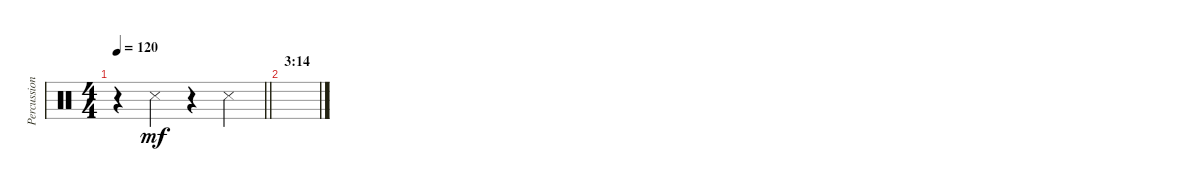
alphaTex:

\track ("Percussion" "Percussion") {instrument percussion}
\staff {score}
\articulation defaults
\ts (4 4)
\tempo 120
\clef neutral
\barLineRight lightlight
\ks c
r.4{dy mf} "Snare (side stick) 3".4 r.4 "Snare (side stick) 3".4 |
\section ("" "3:14")
